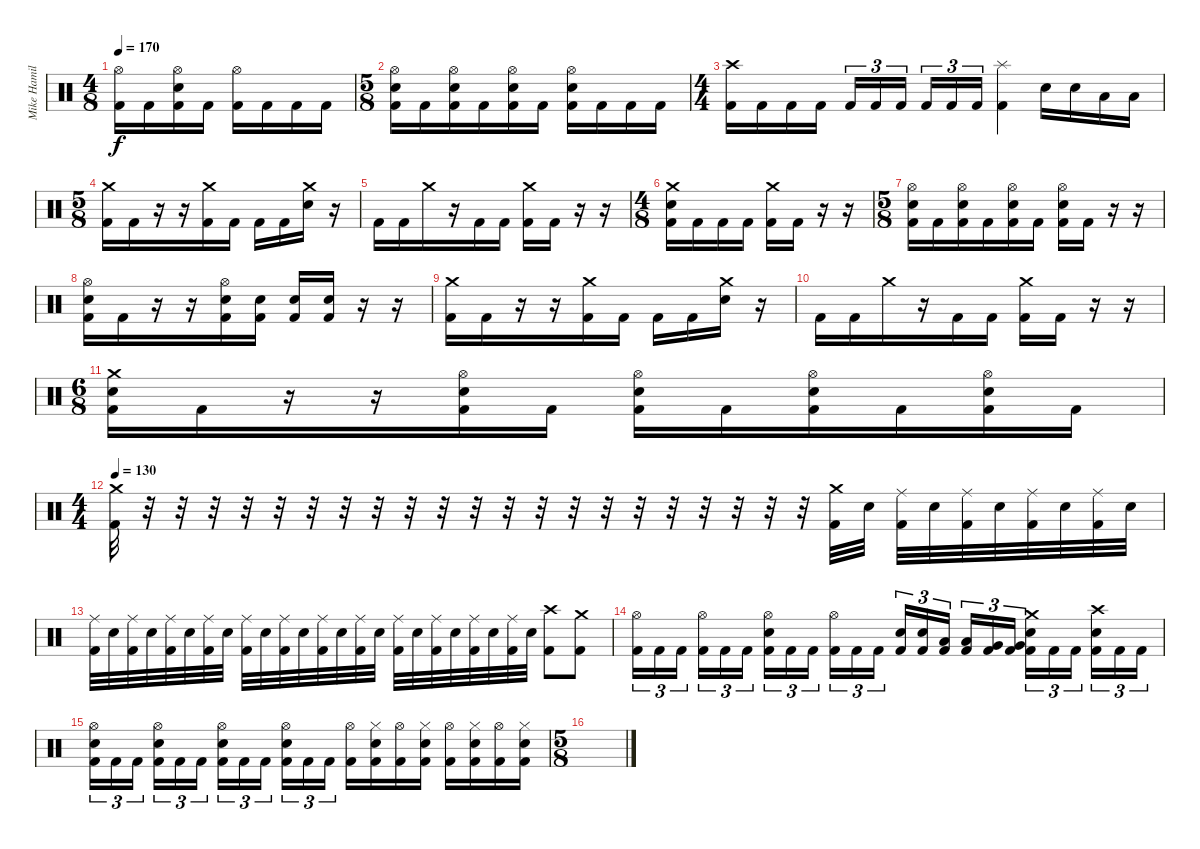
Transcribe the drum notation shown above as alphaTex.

\track ("Mike Hamilton" "Mike Hamil") {instrument percussion}
\staff {score}
\articulation defaults
\ts (4 8)
\tempo 170
\clef neutral
\ks c
("Hi-Hat (open)" "Kick (hit) 2").16{dy f} "Kick (hit) 2".16 ("Hi-Hat (open)" "Electric Snare (hit)" "Kick (hit) 2").16 "Kick (hit) 2".16 ("Hi-Hat (open)" "Kick (hit) 2").16 "Kick (hit) 2".16 "Kick (hit) 2".16 "Kick (hit) 2".16 |
\ts (5 8)
("Hi-Hat (open)" "Electric Snare (hit)" "Kick (hit) 2").16 "Kick (hit) 2".16 ("Hi-Hat (open)" "Electric Snare (hit)" "Kick (hit) 2").16 "Kick (hit) 2".16 ("Hi-Hat (open)" "Electric Snare (hit)" "Kick (hit) 2").16 "Kick (hit) 2".16 ("Hi-Hat (open)" "Electric Snare (hit)" "Kick (hit) 2").16 "Kick (hit) 2".16 "Kick (hit) 2".16 "Kick (hit) 2".16 |
\ts (4 4)
("Crash high (hit)" "Kick (hit) 2").16 "Kick (hit) 2".16 "Kick (hit) 2".16 "Kick (hit) 2".16 "Kick (hit) 2".16{tu (3 2)} "Kick (hit) 2".16{tu (3 2)} "Kick (hit) 2".16{tu (3 2) beam splitsecondary} "Kick (hit) 2".16{tu (3 2)} "Kick (hit) 2".16{tu (3 2)} "Kick (hit) 2".16{tu (3 2)} ("Splash (hit)" "Kick (hit) 2").4 "Electric Snare (hit)".16 "Electric Snare (hit)".16 "Low Tom (hit)".16 "Low Tom (hit)".16 |
\ts (5 8)
("Crash medium (hit)" "Kick (hit) 2").16 "Kick (hit) 2".16 r.16 r.16 ("Crash medium (hit)" "Kick (hit) 2").16 "Kick (hit) 2".16 "Kick (hit) 2".16 "Kick (hit) 2".16 ("Crash medium (hit)" "Electric Snare (hit)").16 r.16 |
"Kick (hit) 2".16 "Kick (hit) 2".16 "Crash medium (hit)".16 r.16 "Kick (hit) 2".16 "Kick (hit) 2".16 ("Crash medium (hit)" "Kick (hit) 2").16 "Kick (hit) 2".16 r.16 r.16 |
\ts (4 8)
("Crash medium (hit)" "Electric Snare (hit)" "Kick (hit) 2").16 "Kick (hit) 2".16 "Kick (hit) 2".16 "Kick (hit) 2".16 ("Crash medium (hit)" "Kick (hit) 2").16 "Kick (hit) 2".16 r.16 r.16 |
\ts (5 8)
("Hi-Hat (open)" "Electric Snare (hit)" "Kick (hit) 2").16 "Kick (hit) 2".16 ("Hi-Hat (open)" "Electric Snare (hit)" "Kick (hit) 2").16 "Kick (hit) 2".16 ("Hi-Hat (open)" "Electric Snare (hit)" "Kick (hit) 2").16 "Kick (hit) 2".16 ("Hi-Hat (open)" "Electric Snare (hit)" "Kick (hit) 2").16 "Kick (hit) 2".16 r.16 r.16 |
("Hi-Hat (open)" "Electric Snare (hit)" "Kick (hit) 2").16 "Kick (hit) 2".16 r.16 r.16 ("Hi-Hat (open)" "Electric Snare (hit)" "Kick (hit) 2").16 ("Electric Snare (hit)" "Kick (hit) 2").16 ("Electric Snare (hit)" "Kick (hit) 2").16 ("Electric Snare (hit)" "Kick (hit) 2").16 r.16 r.16 |
("Crash medium (hit)" "Kick (hit) 2").16 "Kick (hit) 2".16 r.16 r.16 ("Crash medium (hit)" "Kick (hit) 2").16 "Kick (hit) 2".16 "Kick (hit) 2".16 "Kick (hit) 2".16 ("Crash medium (hit)" "Electric Snare (hit)").16 r.16 |
"Kick (hit) 2".16 "Kick (hit) 2".16 "Crash medium (hit)".16 r.16 "Kick (hit) 2".16 "Kick (hit) 2".16 ("Crash medium (hit)" "Kick (hit) 2").16 "Kick (hit) 2".16 r.16 r.16 |
\ts (6 8)
("Crash medium (hit)" "Electric Snare (hit)" "Kick (hit) 2").16 "Kick (hit) 2".16 r.16 r.16 ("Hi-Hat (open)" "Electric Snare (hit)" "Kick (hit) 2").16 "Kick (hit) 2".16 ("Hi-Hat (open)" "Electric Snare (hit)" "Kick (hit) 2").16 "Kick (hit) 2".16 ("Hi-Hat (open)" "Electric Snare (hit)" "Kick (hit) 2").16 "Kick (hit) 2".16 ("Hi-Hat (open)" "Electric Snare (hit)" "Kick (hit) 2").16 "Kick (hit) 2".16 |
\ts (4 4)
\tempo 130
("Crash medium (hit)" "Kick (hit) 2").32 r.32 r.32 r.32 r.32 r.32 r.32 r.32 r.32 r.32 r.32 r.32 r.32 r.32 r.32 r.32 r.32 r.32 r.32 r.32 r.32 r.32 ("Crash medium (hit)" "Kick (hit) 2").32 "Electric Snare (hit)".32 ("Ride (middle)" "Kick (hit) 2").32 "Electric Snare (hit)".32 ("Ride (middle)" "Kick (hit) 2").32 "Electric Snare (hit)".32 ("Ride (middle)" "Kick (hit) 2").32 "Electric Snare (hit)".32 ("Ride (middle)" "Kick (hit) 2").32 "Electric Snare (hit)".32 |
("Ride (middle)" "Kick (hit) 2").32 "Electric Snare (hit)".32 ("Ride (middle)" "Kick (hit) 2").32 "Electric Snare (hit)".32 ("Ride (middle)" "Kick (hit) 2").32 "Electric Snare (hit)".32 ("Ride (middle)" "Kick (hit) 2").32 "Electric Snare (hit)".32 ("Ride (middle)" "Kick (hit) 2").32 "Electric Snare (hit)".32 ("Ride (middle)" "Kick (hit) 2").32 "Electric Snare (hit)".32 ("Ride (middle)" "Kick (hit) 2").32 "Electric Snare (hit)".32 ("Ride (middle)" "Kick (hit) 2").32 "Electric Snare (hit)".32 ("Ride (middle)" "Kick (hit) 2").32 "Electric Snare (hit)".32 ("Ride (middle)" "Kick (hit) 2").32 "Electric Snare (hit)".32 ("Ride (middle)" "Kick (hit) 2").32 "Electric Snare (hit)".32 ("Ride (middle)" "Kick (hit) 2").32 "Electric Snare (hit)".32 ("Crash high (hit)" "Kick (hit) 2").8 ("Crash medium (hit)" "Kick (hit) 2").8 |
("Hi-Hat (open)" "Kick (hit) 2").16{tu (3 2)} "Kick (hit) 2".16{tu (3 2)} "Kick (hit) 2".16{tu (3 2) beam splitsecondary} ("Hi-Hat (open)" "Kick (hit) 2").16{tu (3 2)} "Kick (hit) 2".16{tu (3 2)} "Kick (hit) 2".16{tu (3 2)} ("Hi-Hat (open)" "Electric Snare (hit)" "Kick (hit) 2").16{tu (3 2)} "Kick (hit) 2".16{tu (3 2)} "Kick (hit) 2".16{tu (3 2) beam splitsecondary} ("Hi-Hat (open)" "Kick (hit) 2").16{tu (3 2)} "Kick (hit) 2".16{tu (3 2)} "Kick (hit) 2".16{tu (3 2)} ("Electric Snare (hit)" "Kick (hit) 2").16{tu (3 2)} ("Electric Snare (hit)" "Kick (hit) 2").16{tu (3 2)} ("Low Tom (hit)" "Kick (hit) 2").16{tu (3 2) beam splitsecondary} ("Low Tom (hit)" "Kick (hit) 2").16{tu (3 2)} ("Very Low Tom (hit)" "Kick (hit) 2").16{tu (3 2)} ("Very Low Tom (hit)" "Kick (hit) 2").16{tu (3 2)} ("Crash medium (hit)" "Electric Snare (hit)" "Kick (hit) 2").16{tu (3 2)} "Kick (hit) 2".16{tu (3 2)} "Kick (hit) 2".16{tu (3 2) beam splitsecondary} ("Crash high (hit)" "Electric Snare (hit)" "Kick (hit) 2").16{tu (3 2)} "Kick (hit) 2".16{tu (3 2)} "Kick (hit) 2".16{tu (3 2)} |
("Hi-Hat (open)" "Electric Snare (hit)" "Kick (hit) 2").16{tu (3 2)} "Kick (hit) 2".16{tu (3 2)} "Kick (hit) 2".16{tu (3 2) beam splitsecondary} ("Hi-Hat (open)" "Electric Snare (hit)" "Kick (hit) 2").16{tu (3 2)} "Kick (hit) 2".16{tu (3 2)} "Kick (hit) 2".16{tu (3 2)} ("Hi-Hat (open)" "Electric Snare (hit)" "Kick (hit) 2").16{tu (3 2)} "Kick (hit) 2".16{tu (3 2)} "Kick (hit) 2".16{tu (3 2) beam splitsecondary} ("Hi-Hat (open)" "Electric Snare (hit)" "Kick (hit) 2").16{tu (3 2)} "Kick (hit) 2".16{tu (3 2)} "Kick (hit) 2".16{tu (3 2)} ("Hi-Hat (open)" "Kick (hit) 2").16 ("Hi-Hat (closed)" "Electric Snare (hit)" "Kick (hit) 2").16 ("Hi-Hat (open)" "Kick (hit) 2").16 ("Hi-Hat (closed)" "Electric Snare (hit)" "Kick (hit) 2").16 ("Hi-Hat (open)" "Kick (hit) 2").16 ("Hi-Hat (closed)" "Electric Snare (hit)" "Kick (hit) 2").16 ("Hi-Hat (open)" "Kick (hit) 2").16 ("Hi-Hat (closed)" "Electric Snare (hit)" "Kick (hit) 2").16 |
\ts (5 8)
